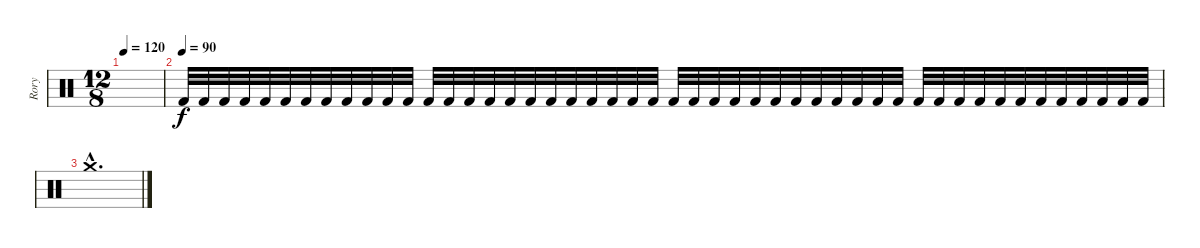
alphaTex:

\track ("Rory" "Rory") {instrument percussion}
\staff {score}
\articulation defaults
\ts (12 8)
\tempo 120
\clef neutral
\ks c
|
\tempo (90)
"Kick (hit) 2".32 "Kick (hit) 2".32 "Kick (hit) 2".32 "Kick (hit) 2".32 "Kick (hit) 2".32 "Kick (hit) 2".32 "Kick (hit) 2".32 "Kick (hit) 2".32 "Kick (hit) 2".32 "Kick (hit) 2".32 "Kick (hit) 2".32 "Kick (hit) 2".32 "Kick (hit) 2".32 "Kick (hit) 2".32 "Kick (hit) 2".32 "Kick (hit) 2".32 "Kick (hit) 2".32 "Kick (hit) 2".32 "Kick (hit) 2".32 "Kick (hit) 2".32 "Kick (hit) 2".32 "Kick (hit) 2".32 "Kick (hit) 2".32 "Kick (hit) 2".32 "Kick (hit) 2".32 "Kick (hit) 2".32 "Kick (hit) 2".32 "Kick (hit) 2".32 "Kick (hit) 2".32 "Kick (hit) 2".32 "Kick (hit) 2".32 "Kick (hit) 2".32 "Kick (hit) 2".32 "Kick (hit) 2".32 "Kick (hit) 2".32 "Kick (hit) 2".32 "Kick (hit) 2".32 "Kick (hit) 2".32 "Kick (hit) 2".32 "Kick (hit) 2".32 "Kick (hit) 2".32 "Kick (hit) 2".32 "Kick (hit) 2".32 "Kick (hit) 2".32 "Kick (hit) 2".32 "Kick (hit) 2".32 "Kick (hit) 2".32 "Kick (hit) 2".32 |
"Crash medium (hit)"{hac}.1{d}
